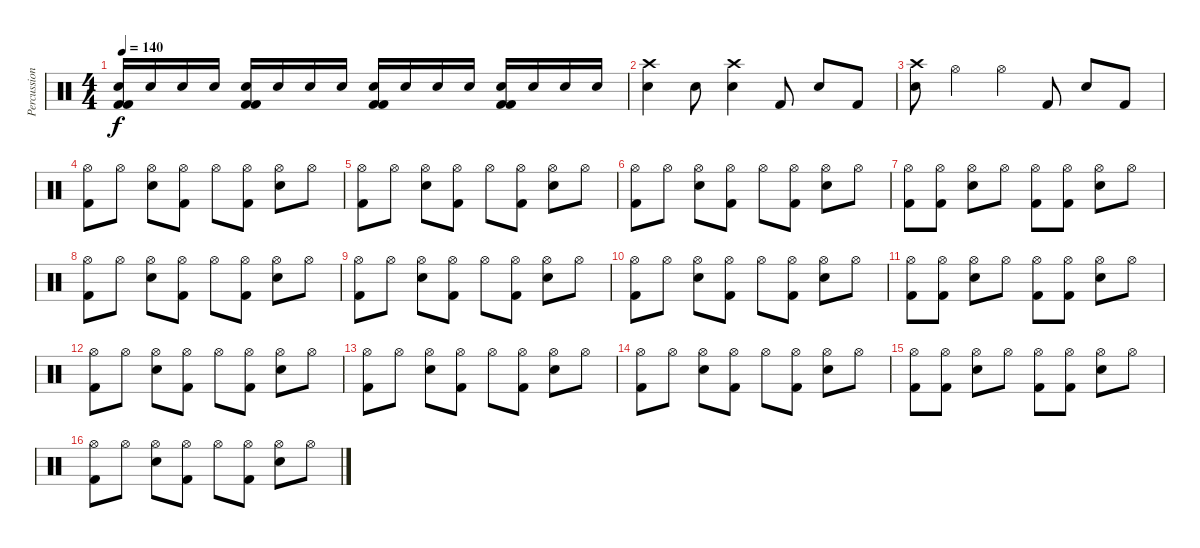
\track ("Percussion" "Percussion") {instrument percussion}
\staff {score}
\articulation defaults
\ts (4 4)
\tempo 140
\clef neutral
\ks c
("Electric Snare (hit)" "Kick (hit) 2" "Kick (hit) 2").16{dy f} "Electric Snare (hit)".16 "Electric Snare (hit)".16 "Electric Snare (hit)".16 ("Electric Snare (hit)" "Kick (hit) 2" "Kick (hit) 2").16 "Electric Snare (hit)".16 "Electric Snare (hit)".16 "Electric Snare (hit)".16 ("Electric Snare (hit)" "Kick (hit) 2" "Kick (hit) 2").16 "Electric Snare (hit)".16 "Electric Snare (hit)".16 "Electric Snare (hit)".16 ("Electric Snare (hit)" "Kick (hit) 2" "Kick (hit) 2").16 "Electric Snare (hit)".16 "Electric Snare (hit)".16 "Electric Snare (hit)".16 |
("Crash high (hit)" "Electric Snare (hit)").4 "Electric Snare (hit)".8 ("Crash high (hit)" "Electric Snare (hit)").4 "Kick (hit) 2".8 "Electric Snare (hit)".8 "Kick (hit) 2".8 |
("Crash high (hit)" "Electric Snare (hit)").8 "Hi-Hat (open)".4 "Hi-Hat (open)".4 "Kick (hit) 2".8 "Electric Snare (hit)".8 "Kick (hit) 2".8 |
("Hi-Hat (open)" "Kick (hit) 2").8 "Hi-Hat (open)".8 ("Hi-Hat (open)" "Electric Snare (hit)").8 ("Hi-Hat (open)" "Kick (hit) 2").8 "Hi-Hat (open)".8 ("Hi-Hat (open)" "Kick (hit) 2").8 ("Hi-Hat (open)" "Electric Snare (hit)").8 "Hi-Hat (open)".8 |
("Hi-Hat (open)" "Kick (hit) 2").8 "Hi-Hat (open)".8 ("Hi-Hat (open)" "Electric Snare (hit)").8 ("Hi-Hat (open)" "Kick (hit) 2").8 "Hi-Hat (open)".8 ("Hi-Hat (open)" "Kick (hit) 2").8 ("Hi-Hat (open)" "Electric Snare (hit)").8 "Hi-Hat (open)".8 |
("Hi-Hat (open)" "Kick (hit) 2").8 "Hi-Hat (open)".8 ("Hi-Hat (open)" "Electric Snare (hit)").8 ("Hi-Hat (open)" "Kick (hit) 2").8 "Hi-Hat (open)".8 ("Hi-Hat (open)" "Kick (hit) 2").8 ("Hi-Hat (open)" "Electric Snare (hit)").8 "Hi-Hat (open)".8 |
("Hi-Hat (open)" "Kick (hit) 2").8 ("Hi-Hat (open)" "Kick (hit) 2").8 ("Hi-Hat (open)" "Electric Snare (hit)").8 "Hi-Hat (open)".8 ("Hi-Hat (open)" "Kick (hit) 2").8 ("Hi-Hat (open)" "Kick (hit) 2").8 ("Hi-Hat (open)" "Electric Snare (hit)").8 "Hi-Hat (open)".8 |
("Hi-Hat (open)" "Kick (hit) 2").8 "Hi-Hat (open)".8 ("Hi-Hat (open)" "Electric Snare (hit)").8 ("Hi-Hat (open)" "Kick (hit) 2").8 "Hi-Hat (open)".8 ("Hi-Hat (open)" "Kick (hit) 2").8 ("Hi-Hat (open)" "Electric Snare (hit)").8 "Hi-Hat (open)".8 |
("Hi-Hat (open)" "Kick (hit) 2").8 "Hi-Hat (open)".8 ("Hi-Hat (open)" "Electric Snare (hit)").8 ("Hi-Hat (open)" "Kick (hit) 2").8 "Hi-Hat (open)".8 ("Hi-Hat (open)" "Kick (hit) 2").8 ("Hi-Hat (open)" "Electric Snare (hit)").8 "Hi-Hat (open)".8 |
("Hi-Hat (open)" "Kick (hit) 2").8 "Hi-Hat (open)".8 ("Hi-Hat (open)" "Electric Snare (hit)").8 ("Hi-Hat (open)" "Kick (hit) 2").8 "Hi-Hat (open)".8 ("Hi-Hat (open)" "Kick (hit) 2").8 ("Hi-Hat (open)" "Electric Snare (hit)").8 "Hi-Hat (open)".8 |
("Hi-Hat (open)" "Kick (hit) 2").8 ("Hi-Hat (open)" "Kick (hit) 2").8 ("Hi-Hat (open)" "Electric Snare (hit)").8 "Hi-Hat (open)".8 ("Hi-Hat (open)" "Kick (hit) 2").8 ("Hi-Hat (open)" "Kick (hit) 2").8 ("Hi-Hat (open)" "Electric Snare (hit)").8 "Hi-Hat (open)".8 |
("Hi-Hat (open)" "Kick (hit) 2").8 "Hi-Hat (open)".8 ("Hi-Hat (open)" "Electric Snare (hit)").8 ("Hi-Hat (open)" "Kick (hit) 2").8 "Hi-Hat (open)".8 ("Hi-Hat (open)" "Kick (hit) 2").8 ("Hi-Hat (open)" "Electric Snare (hit)").8 "Hi-Hat (open)".8 |
("Hi-Hat (open)" "Kick (hit) 2").8 "Hi-Hat (open)".8 ("Hi-Hat (open)" "Electric Snare (hit)").8 ("Hi-Hat (open)" "Kick (hit) 2").8 "Hi-Hat (open)".8 ("Hi-Hat (open)" "Kick (hit) 2").8 ("Hi-Hat (open)" "Electric Snare (hit)").8 "Hi-Hat (open)".8 |
("Hi-Hat (open)" "Kick (hit) 2").8 "Hi-Hat (open)".8 ("Hi-Hat (open)" "Electric Snare (hit)").8 ("Hi-Hat (open)" "Kick (hit) 2").8 "Hi-Hat (open)".8 ("Hi-Hat (open)" "Kick (hit) 2").8 ("Hi-Hat (open)" "Electric Snare (hit)").8 "Hi-Hat (open)".8 |
("Hi-Hat (open)" "Kick (hit) 2").8 ("Hi-Hat (open)" "Kick (hit) 2").8 ("Hi-Hat (open)" "Electric Snare (hit)").8 "Hi-Hat (open)".8 ("Hi-Hat (open)" "Kick (hit) 2").8 ("Hi-Hat (open)" "Kick (hit) 2").8 ("Hi-Hat (open)" "Electric Snare (hit)").8 "Hi-Hat (open)".8 |
("Hi-Hat (open)" "Kick (hit) 2").8 "Hi-Hat (open)".8 ("Hi-Hat (open)" "Electric Snare (hit)").8 ("Hi-Hat (open)" "Kick (hit) 2").8 "Hi-Hat (open)".8 ("Hi-Hat (open)" "Kick (hit) 2").8 ("Hi-Hat (open)" "Electric Snare (hit)").8 "Hi-Hat (open)".8
